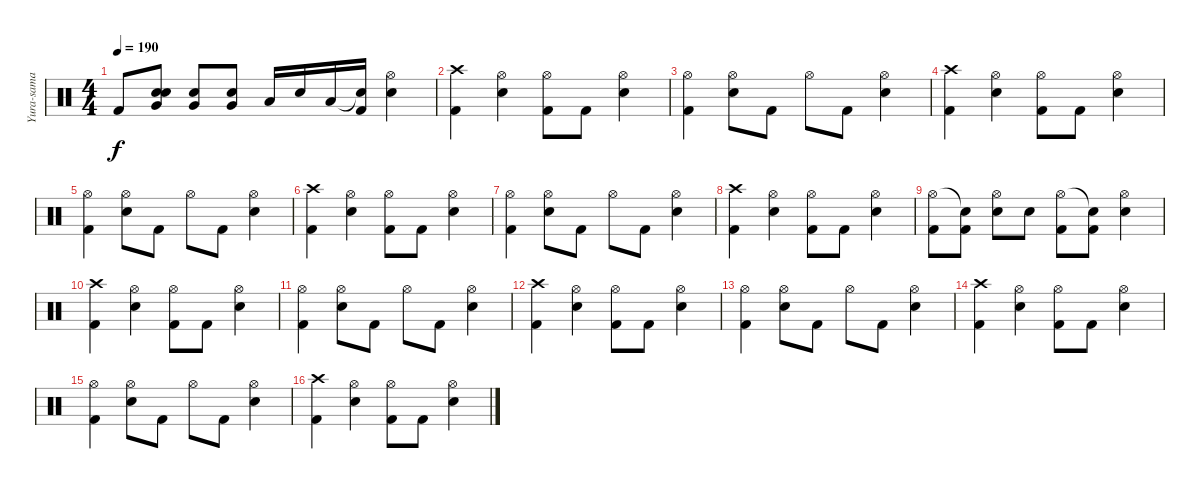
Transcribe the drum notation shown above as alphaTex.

\track ("Yura-sama" "Yura-sama") {instrument percussion}
\staff {score}
\articulation defaults
\ts (4 4)
\tempo 190
\clef neutral
\ks c "Kick (hit) 2".8{dy f}
("Electric Snare (hit)" "Very Low Tom (hit)" "Snare (hit)"{t}).8 ("Electric Snare (hit)" "Very Low Tom (hit)").8 ("Electric Snare (hit)" "Very Low Tom (hit)").8 "Low Tom (hit)".16 "Electric Snare (hit)".16 "Low Tom (hit)".16 ("Snare (hit)"{t} "Kick (hit) 2").16 ("Hi-Hat (open)" "Electric Snare (hit)").4 |
("Crash high (hit)" "Kick (hit) 2").4 ("Hi-Hat (open)" "Electric Snare (hit)").4 ("Hi-Hat (open)" "Kick (hit) 2").8 "Kick (hit) 2".8 ("Hi-Hat (open)" "Electric Snare (hit)").4 |
("Hi-Hat (open)" "Kick (hit) 2").4 ("Hi-Hat (open)" "Electric Snare (hit)").8 "Kick (hit) 2".8 "Hi-Hat (open)".8 "Kick (hit) 2".8 ("Hi-Hat (open)" "Electric Snare (hit)").4 |
("Crash high (hit)" "Kick (hit) 2").4 ("Hi-Hat (open)" "Electric Snare (hit)").4 ("Hi-Hat (open)" "Kick (hit) 2").8 "Kick (hit) 2".8 ("Hi-Hat (open)" "Electric Snare (hit)").4 |
("Hi-Hat (open)" "Kick (hit) 2").4 ("Hi-Hat (open)" "Electric Snare (hit)").8 "Kick (hit) 2".8 "Hi-Hat (open)".8 "Kick (hit) 2".8 ("Hi-Hat (open)" "Electric Snare (hit)").4 |
("Crash high (hit)" "Kick (hit) 2").4 ("Hi-Hat (open)" "Electric Snare (hit)").4 ("Hi-Hat (open)" "Kick (hit) 2").8 "Kick (hit) 2".8 ("Hi-Hat (open)" "Electric Snare (hit)").4 |
("Hi-Hat (open)" "Kick (hit) 2").4 ("Hi-Hat (open)" "Electric Snare (hit)").8 "Kick (hit) 2".8 "Hi-Hat (open)".8 "Kick (hit) 2".8 ("Hi-Hat (open)" "Electric Snare (hit)").4 |
("Crash high (hit)" "Kick (hit) 2").4 ("Hi-Hat (open)" "Electric Snare (hit)").4 ("Hi-Hat (open)" "Kick (hit) 2").8 "Kick (hit) 2".8 ("Hi-Hat (open)" "Electric Snare (hit)").4 |
("Hi-Hat (open)" "Kick (hit) 2").8 ("Snare (hit)"{t} "Kick (hit) 2").8 ("Hi-Hat (open)" "Electric Snare (hit)").8 "Electric Snare (hit)".8 ("Hi-Hat (open)" "Kick (hit) 2").8 ("Snare (hit)"{t} "Kick (hit) 2").8 ("Hi-Hat (open)" "Electric Snare (hit)").4 |
("Crash high (hit)" "Kick (hit) 2").4 ("Hi-Hat (open)" "Electric Snare (hit)").4 ("Hi-Hat (open)" "Kick (hit) 2").8 "Kick (hit) 2".8 ("Hi-Hat (open)" "Electric Snare (hit)").4 |
("Hi-Hat (open)" "Kick (hit) 2").4 ("Hi-Hat (open)" "Electric Snare (hit)").8 "Kick (hit) 2".8 "Hi-Hat (open)".8 "Kick (hit) 2".8 ("Hi-Hat (open)" "Electric Snare (hit)").4 |
("Crash high (hit)" "Kick (hit) 2").4 ("Hi-Hat (open)" "Electric Snare (hit)").4 ("Hi-Hat (open)" "Kick (hit) 2").8 "Kick (hit) 2".8 ("Hi-Hat (open)" "Electric Snare (hit)").4 |
("Hi-Hat (open)" "Kick (hit) 2").4 ("Hi-Hat (open)" "Electric Snare (hit)").8 "Kick (hit) 2".8 "Hi-Hat (open)".8 "Kick (hit) 2".8 ("Hi-Hat (open)" "Electric Snare (hit)").4 |
("Crash high (hit)" "Kick (hit) 2").4 ("Hi-Hat (open)" "Electric Snare (hit)").4 ("Hi-Hat (open)" "Kick (hit) 2").8 "Kick (hit) 2".8 ("Hi-Hat (open)" "Electric Snare (hit)").4 |
("Hi-Hat (open)" "Kick (hit) 2").4 ("Hi-Hat (open)" "Electric Snare (hit)").8 "Kick (hit) 2".8 "Hi-Hat (open)".8 "Kick (hit) 2".8 ("Hi-Hat (open)" "Electric Snare (hit)").4 |
("Crash high (hit)" "Kick (hit) 2").4 ("Hi-Hat (open)" "Electric Snare (hit)").4 ("Hi-Hat (open)" "Kick (hit) 2").8 "Kick (hit) 2".8 ("Hi-Hat (open)" "Electric Snare (hit)").4
